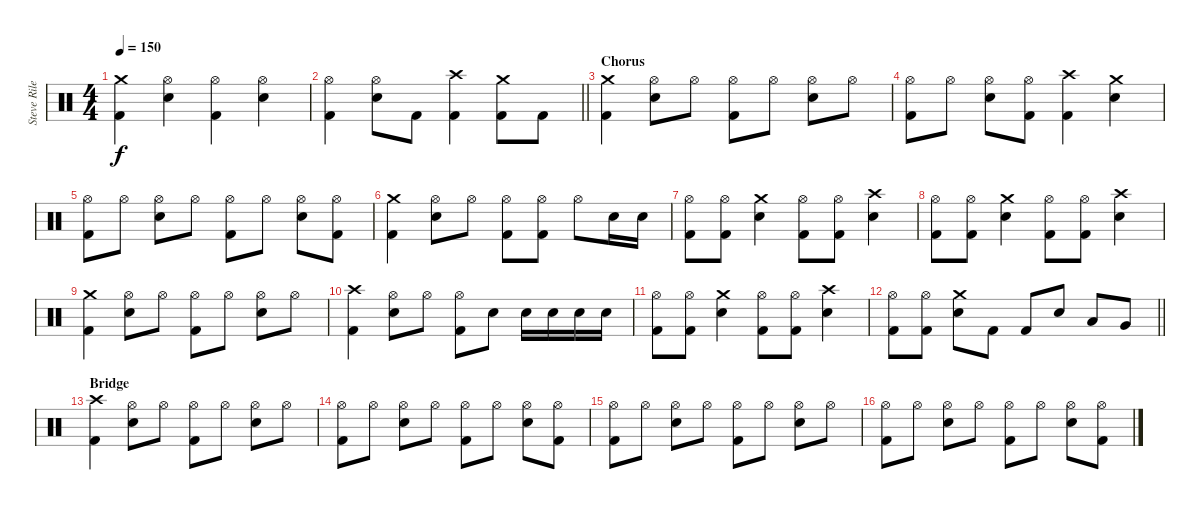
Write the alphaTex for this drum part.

\track ("Steve Riley" "Steve Rile") {instrument percussion}
\staff {score}
\articulation defaults
\ts (4 4)
\tempo 150
\clef neutral
\ks c
("Crash medium (hit)" "Kick (hit) 2").4{dy f} ("Hi-Hat (open)" "Snare (hit) 2").4 ("Hi-Hat (open)" "Kick (hit) 2").4 ("Hi-Hat (open)" "Snare (hit) 2").4 |
\barLineRight lightlight
("Hi-Hat (open)" "Kick (hit) 2").4 ("Hi-Hat (open)" "Snare (hit) 2").8 "Kick (hit) 2".8 ("Crash high (hit)" "Kick (hit) 2").4 ("Crash medium (hit)" "Kick (hit) 2").8 "Kick (hit) 2".8 |
\section ("" "Chorus")
("Crash medium (hit)" "Kick (hit) 2").4 ("Hi-Hat (open)" "Snare (hit) 2").8 "Hi-Hat (open)".8 ("Hi-Hat (open)" "Kick (hit) 2").8 "Hi-Hat (open)".8 ("Hi-Hat (open)" "Snare (hit) 2").8 "Hi-Hat (open)".8 |
("Hi-Hat (open)" "Kick (hit) 2").8 "Hi-Hat (open)".8 ("Hi-Hat (open)" "Snare (hit) 2").8 ("Hi-Hat (open)" "Kick (hit) 2").8 ("Crash high (hit)" "Kick (hit) 2").4 ("Crash medium (hit)" "Snare (hit) 2").4 |
("Hi-Hat (open)" "Kick (hit) 2").8 "Hi-Hat (open)".8 ("Hi-Hat (open)" "Snare (hit) 2").8 "Hi-Hat (open)".8 ("Hi-Hat (open)" "Kick (hit) 2").8 "Hi-Hat (open)".8 ("Hi-Hat (open)" "Snare (hit) 2").8 ("Hi-Hat (open)" "Kick (hit) 2").8 |
("Crash medium (hit)" "Kick (hit) 2").4 ("Hi-Hat (open)" "Snare (hit) 2").8 "Hi-Hat (open)".8 ("Hi-Hat (open)" "Kick (hit) 2").8 ("Hi-Hat (open)" "Kick (hit) 2").8 "Hi-Hat (open)".8 "Snare (hit) 2".16 "Snare (hit) 2".16 |
("Hi-Hat (open)" "Kick (hit) 2").8 ("Hi-Hat (open)" "Kick (hit) 2").8 ("Crash medium (hit)" "Snare (hit) 2").4 ("Hi-Hat (open)" "Kick (hit) 2").8 ("Hi-Hat (open)" "Kick (hit) 2").8 ("Crash high (hit)" "Snare (hit) 2").4 |
("Hi-Hat (open)" "Kick (hit) 2").8 ("Hi-Hat (open)" "Kick (hit) 2").8 ("Crash medium (hit)" "Snare (hit) 2").4 ("Hi-Hat (open)" "Kick (hit) 2").8 ("Hi-Hat (open)" "Kick (hit) 2").8 ("Crash high (hit)" "Snare (hit) 2").4 |
("Crash medium (hit)" "Kick (hit) 2").4 ("Hi-Hat (open)" "Snare (hit) 2").8 "Hi-Hat (open)".8 ("Hi-Hat (open)" "Kick (hit) 2").8 "Hi-Hat (open)".8 ("Hi-Hat (open)" "Snare (hit) 2").8 "Hi-Hat (open)".8 |
("Crash high (hit)" "Kick (hit) 2").4 ("Hi-Hat (open)" "Snare (hit) 2").8 "Hi-Hat (open)".8 ("Hi-Hat (open)" "Kick (hit) 2").8 "Snare (hit) 2".8 "Snare (hit) 2".16 "Snare (hit) 2".16 "Snare (hit) 2".16 "Snare (hit) 2".16 |
("Hi-Hat (open)" "Kick (hit) 2").8 ("Hi-Hat (open)" "Kick (hit) 2").8 ("Crash medium (hit)" "Snare (hit) 2").4 ("Hi-Hat (open)" "Kick (hit) 2").8 ("Hi-Hat (open)" "Kick (hit) 2").8 ("Crash high (hit)" "Snare (hit) 2").4 |
\barLineRight lightlight
("Hi-Hat (open)" "Kick (hit) 2").8 ("Hi-Hat (open)" "Kick (hit) 2").8 ("Crash medium (hit)" "Snare (hit) 2").8 "Kick (hit) 2".8 "Kick (hit) 2".8 "Snare (hit) 2".8 "Low Tom (hit)".8 "Very Low Tom (hit)".8 |
\section ("" "Bridge")
("Crash high (hit)" "Kick (hit) 2").4 ("Hi-Hat (open)" "Snare (hit) 2").8 "Hi-Hat (open)".8 ("Hi-Hat (open)" "Kick (hit) 2").8 "Hi-Hat (open)".8 ("Hi-Hat (open)" "Snare (hit) 2").8 "Hi-Hat (open)".8 |
("Hi-Hat (open)" "Kick (hit) 2").8 "Hi-Hat (open)".8 ("Hi-Hat (open)" "Snare (hit) 2").8 "Hi-Hat (open)".8 ("Hi-Hat (open)" "Kick (hit) 2").8 "Hi-Hat (open)".8 ("Hi-Hat (open)" "Snare (hit) 2").8 ("Hi-Hat (open)" "Kick (hit) 2").8 |
("Hi-Hat (open)" "Kick (hit) 2").8 "Hi-Hat (open)".8 ("Hi-Hat (open)" "Snare (hit) 2").8 "Hi-Hat (open)".8 ("Hi-Hat (open)" "Kick (hit) 2").8 "Hi-Hat (open)".8 ("Hi-Hat (open)" "Snare (hit) 2").8 "Hi-Hat (open)".8 |
("Hi-Hat (open)" "Kick (hit) 2").8 "Hi-Hat (open)".8 ("Hi-Hat (open)" "Snare (hit) 2").8 "Hi-Hat (open)".8 ("Hi-Hat (open)" "Kick (hit) 2").8 "Hi-Hat (open)".8 ("Hi-Hat (open)" "Snare (hit) 2").8 ("Hi-Hat (open)" "Kick (hit) 2").8
